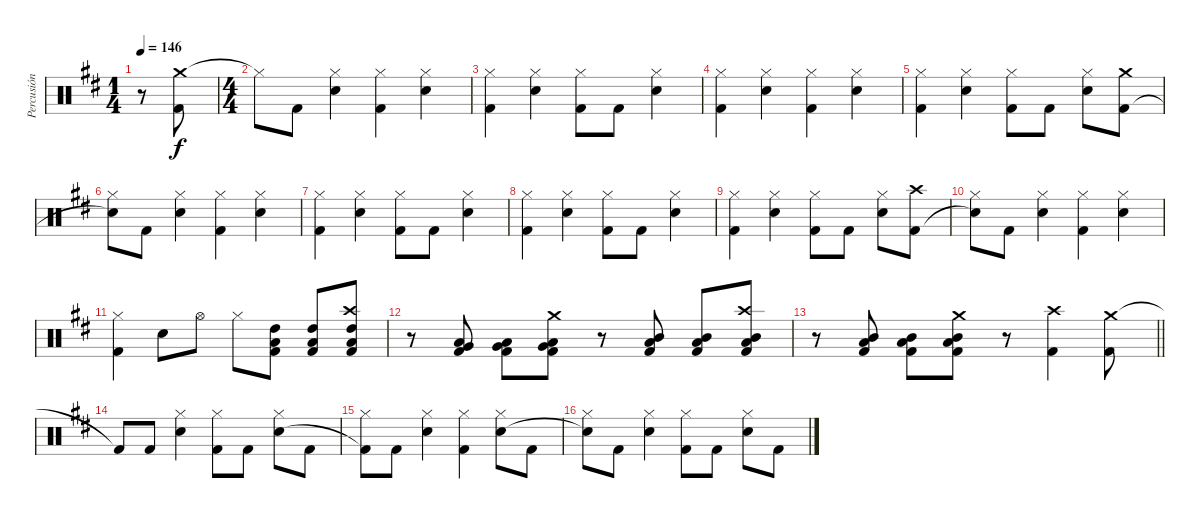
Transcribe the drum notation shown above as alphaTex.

\track ("Percusión" "Percusión") {instrument percussion}
\staff {score}
\articulation defaults
\ts (1 4)
\tempo 146
\clef neutral
\ks d
r.8{dy f} ("Crash medium (hit)" "Kick (hit) 2").8 |
\ts (4 4)
"Hi-Hat (closed)"{t}.8 "Kick (hit) 2".8 ("Hi-Hat (closed)" "Snare (hit) 2").4 ("Hi-Hat (closed)" "Kick (hit) 2").4 ("Hi-Hat (closed)" "Snare (hit) 2").4 |
("Hi-Hat (closed)" "Kick (hit) 2").4 ("Hi-Hat (closed)" "Snare (hit) 2").4 ("Hi-Hat (closed)" "Kick (hit) 2").8 "Kick (hit) 2".8 ("Hi-Hat (closed)" "Snare (hit) 2").4 |
("Hi-Hat (closed)" "Kick (hit) 2").4 ("Hi-Hat (closed)" "Snare (hit) 2").4 ("Hi-Hat (closed)" "Kick (hit) 2").4 ("Hi-Hat (closed)" "Snare (hit) 2").4 |
("Hi-Hat (closed)" "Kick (hit) 2").4 ("Hi-Hat (closed)" "Snare (hit) 2").4 ("Hi-Hat (closed)" "Kick (hit) 2").8 "Kick (hit) 2".8 ("Hi-Hat (closed)" "Snare (hit) 2").8 ("Crash medium (hit)" "Kick (hit) 2").8 |
("Hi-Hat (closed)" "Snare (hit)"{t}).8 "Kick (hit) 2".8 ("Hi-Hat (closed)" "Snare (hit) 2").4 ("Hi-Hat (closed)" "Kick (hit) 2").4 ("Hi-Hat (closed)" "Snare (hit) 2").4 |
("Hi-Hat (closed)" "Kick (hit) 2").4 ("Hi-Hat (closed)" "Snare (hit) 2").4 ("Hi-Hat (closed)" "Kick (hit) 2").8 "Kick (hit) 2".8 ("Hi-Hat (closed)" "Snare (hit) 2").4 |
("Hi-Hat (closed)" "Kick (hit) 2").4 ("Hi-Hat (closed)" "Snare (hit) 2").4 ("Hi-Hat (closed)" "Kick (hit) 2").8 "Kick (hit) 2".8 ("Hi-Hat (closed)" "Snare (hit) 2").4 |
("Hi-Hat (closed)" "Kick (hit) 2").4 ("Hi-Hat (closed)" "Snare (hit) 2").4 ("Hi-Hat (closed)" "Kick (hit) 2").8 "Kick (hit) 2".8 ("Hi-Hat (closed)" "Snare (hit) 2").8 ("Crash high (hit)" "Kick (hit) 2").8 |
("Hi-Hat (closed)" "Snare (hit)"{t}).8 "Kick (hit) 2".8 ("Hi-Hat (closed)" "Snare (hit) 2").4 ("Hi-Hat (closed)" "Kick (hit) 2").4 ("Hi-Hat (closed)" "Snare (hit) 2").4 |
("Hi-Hat (closed)" "Kick (hit) 2").4 "Snare (hit) 2".8 "Hi-Hat (open)".8 "Hi-Hat (closed)".8 ("Low Tom (hit)" "High Tom (hit)" "Kick (hit) 2").8 ("Low Tom (hit)" "High Tom (hit)" "Kick (hit) 2").8 ("Crash high (hit)" "Low Tom (hit)" "High Tom (hit)" "Kick (hit) 2").8 |
r.8 ("Very Low Tom (hit)" "Low Tom (hit)" "Kick (hit) 2").8 ("Very Low Tom (hit)" "Low Tom (hit)" "Kick (hit) 2").8 ("Crash medium (hit)" "Very Low Tom (hit)" "Low Tom (hit)" "Kick (hit) 2").8 r.8 ("Low Floor Tom (hit)" "Mid Tom (hit)" "Kick (hit) 2").8 ("Low Floor Tom (hit)" "Mid Tom (hit)" "Kick (hit) 2").8 ("Crash high (hit)" "Low Floor Tom (hit)" "Mid Tom (hit)" "Kick (hit) 2").8 |
\barLineRight lightlight
r.8 ("Mid Tom (hit)" "Low Floor Tom (hit)" "Kick (hit) 2").8 ("Mid Tom (hit)" "Low Floor Tom (hit)" "Kick (hit) 2").8 ("Crash medium (hit)" "Mid Tom (hit)" "Low Floor Tom (hit)" "Kick (hit) 2").8 r.8 ("Crash high (hit)" "Kick (hit) 2").4 ("Crash medium (hit)" "Kick (hit) 2").8 |
"Kick (hit) 2"{t}.8 "Kick (hit) 2".8 ("Hi-Hat (closed)" "Snare (hit) 2").4 ("Hi-Hat (closed)" "Kick (hit) 2").8 "Kick (hit) 2".8 ("Hi-Hat (closed)" "Snare (hit) 2").8 "Kick (hit) 2".8 |
("Hi-Hat (closed)" "Kick (hit) 2"{t}).8 "Kick (hit) 2".8 ("Hi-Hat (closed)" "Snare (hit) 2").4 ("Hi-Hat (closed)" "Kick (hit) 2").4 ("Hi-Hat (closed)" "Snare (hit) 2").8 "Kick (hit) 2".8 |
("Hi-Hat (closed)" "Snare (hit)"{t}).8 "Kick (hit) 2".8 ("Hi-Hat (closed)" "Snare (hit) 2").4 ("Hi-Hat (closed)" "Kick (hit) 2").8 "Kick (hit) 2".8 ("Hi-Hat (closed)" "Snare (hit) 2").8 "Kick (hit) 2".8
